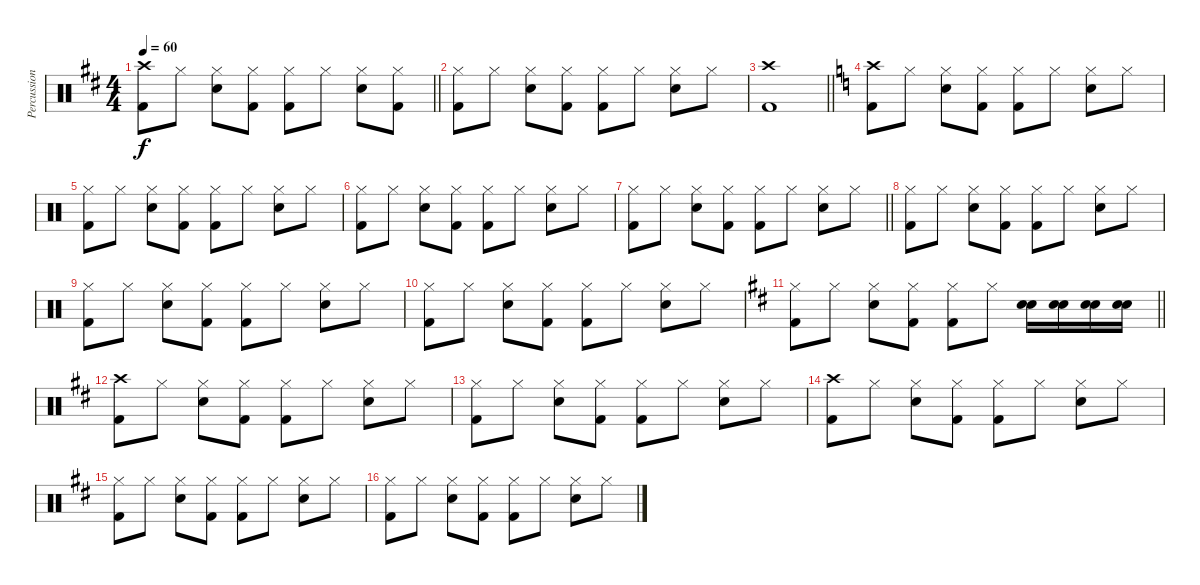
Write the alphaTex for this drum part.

\track ("Percussioni" "Percussion") {instrument percussion}
\staff {score}
\articulation defaults
\ts (4 4)
\tempo 60
\clef neutral
\barLineRight lightlight
\ks d
("Crash high (hit)" "Kick (hit) 2").8{dy f} "Hi-Hat (closed)".8 ("Hi-Hat (closed)" "Electric Snare (hit)").8 ("Hi-Hat (closed)" "Kick (hit) 2").8 ("Hi-Hat (closed)" "Kick (hit) 2").8 "Hi-Hat (closed)".8 ("Hi-Hat (closed)" "Electric Snare (hit)").8 ("Hi-Hat (closed)" "Kick (hit) 2").8 |
("Hi-Hat (closed)" "Kick (hit) 2").8 "Hi-Hat (closed)".8 ("Hi-Hat (closed)" "Electric Snare (hit)").8 ("Hi-Hat (closed)" "Kick (hit) 2").8 ("Hi-Hat (closed)" "Kick (hit) 2").8 "Hi-Hat (closed)".8 ("Hi-Hat (closed)" "Electric Snare (hit)").8 "Hi-Hat (closed)".8 |
\barLineRight lightlight
("Crash high (hit)" "Kick (hit) 2").1 |
\ks c
("Crash high (hit)" "Kick (hit) 2").8 "Hi-Hat (closed)".8 ("Hi-Hat (closed)" "Electric Snare (hit)").8 ("Hi-Hat (closed)" "Kick (hit) 2").8 ("Hi-Hat (closed)" "Kick (hit) 2").8 "Hi-Hat (closed)".8 ("Hi-Hat (closed)" "Electric Snare (hit)").8 "Hi-Hat (closed)".8 |
("Hi-Hat (closed)" "Kick (hit) 2").8 "Hi-Hat (closed)".8 ("Hi-Hat (closed)" "Electric Snare (hit)").8 ("Hi-Hat (closed)" "Kick (hit) 2").8 ("Hi-Hat (closed)" "Kick (hit) 2").8 "Hi-Hat (closed)".8 ("Hi-Hat (closed)" "Electric Snare (hit)").8 "Hi-Hat (closed)".8 |
("Hi-Hat (closed)" "Kick (hit) 2").8 "Hi-Hat (closed)".8 ("Hi-Hat (closed)" "Electric Snare (hit)").8 ("Hi-Hat (closed)" "Kick (hit) 2").8 ("Hi-Hat (closed)" "Kick (hit) 2").8 "Hi-Hat (closed)".8 ("Hi-Hat (closed)" "Electric Snare (hit)").8 "Hi-Hat (closed)".8 |
\barLineRight lightlight
("Hi-Hat (closed)" "Kick (hit) 2").8 "Hi-Hat (closed)".8 ("Hi-Hat (closed)" "Electric Snare (hit)").8 ("Hi-Hat (closed)" "Kick (hit) 2").8 ("Hi-Hat (closed)" "Kick (hit) 2").8 "Hi-Hat (closed)".8 ("Hi-Hat (closed)" "Electric Snare (hit)").8 "Hi-Hat (closed)".8 |
("Hi-Hat (closed)" "Kick (hit) 2").8 "Hi-Hat (closed)".8 ("Hi-Hat (closed)" "Electric Snare (hit)").8 ("Hi-Hat (closed)" "Kick (hit) 2").8 ("Hi-Hat (closed)" "Kick (hit) 2").8 "Hi-Hat (closed)".8 ("Hi-Hat (closed)" "Electric Snare (hit)").8 "Hi-Hat (closed)".8 |
("Hi-Hat (closed)" "Kick (hit) 2").8 "Hi-Hat (closed)".8 ("Hi-Hat (closed)" "Electric Snare (hit)").8 ("Hi-Hat (closed)" "Kick (hit) 2").8 ("Hi-Hat (closed)" "Kick (hit) 2").8 "Hi-Hat (closed)".8 ("Hi-Hat (closed)" "Electric Snare (hit)").8 "Hi-Hat (closed)".8 |
("Hi-Hat (closed)" "Kick (hit) 2").8 "Hi-Hat (closed)".8 ("Hi-Hat (closed)" "Electric Snare (hit)").8 ("Hi-Hat (closed)" "Kick (hit) 2").8 ("Hi-Hat (closed)" "Kick (hit) 2").8 "Hi-Hat (closed)".8 ("Hi-Hat (closed)" "Electric Snare (hit)").8 "Hi-Hat (closed)".8 |
\barLineRight lightlight
\ks d
("Hi-Hat (closed)" "Kick (hit) 2").8 "Hi-Hat (closed)".8 ("Hi-Hat (closed)" "Electric Snare (hit)").8 ("Hi-Hat (closed)" "Kick (hit) 2").8 ("Hi-Hat (closed)" "Kick (hit) 2").8 "Hi-Hat (closed)".8 ("Electric Snare (hit)" "Snare (hit) 2").16 ("Electric Snare (hit)" "Snare (hit) 2").16 ("Electric Snare (hit)" "Snare (hit) 2").16 ("Electric Snare (hit)" "Snare (hit) 2").16 |
("Crash high (hit)" "Kick (hit) 2").8 "Hi-Hat (closed)".8 ("Hi-Hat (closed)" "Electric Snare (hit)").8 ("Hi-Hat (closed)" "Kick (hit) 2").8 ("Hi-Hat (closed)" "Kick (hit) 2").8 "Hi-Hat (closed)".8 ("Hi-Hat (closed)" "Electric Snare (hit)").8 "Hi-Hat (closed)".8 |
("Hi-Hat (closed)" "Kick (hit) 2").8 "Hi-Hat (closed)".8 ("Hi-Hat (closed)" "Electric Snare (hit)").8 ("Hi-Hat (closed)" "Kick (hit) 2").8 ("Hi-Hat (closed)" "Kick (hit) 2").8 "Hi-Hat (closed)".8 ("Hi-Hat (closed)" "Electric Snare (hit)").8 "Hi-Hat (closed)".8 |
("Crash high (hit)" "Kick (hit) 2").8 "Hi-Hat (closed)".8 ("Hi-Hat (closed)" "Electric Snare (hit)").8 ("Hi-Hat (closed)" "Kick (hit) 2").8 ("Hi-Hat (closed)" "Kick (hit) 2").8 "Hi-Hat (closed)".8 ("Hi-Hat (closed)" "Electric Snare (hit)").8 "Hi-Hat (closed)".8 |
("Hi-Hat (closed)" "Kick (hit) 2").8 "Hi-Hat (closed)".8 ("Hi-Hat (closed)" "Electric Snare (hit)").8 ("Hi-Hat (closed)" "Kick (hit) 2").8 ("Hi-Hat (closed)" "Kick (hit) 2").8 "Hi-Hat (closed)".8 ("Hi-Hat (closed)" "Electric Snare (hit)").8 "Hi-Hat (closed)".8 |
("Hi-Hat (closed)" "Kick (hit) 2").8 "Hi-Hat (closed)".8 ("Hi-Hat (closed)" "Electric Snare (hit)").8 ("Hi-Hat (closed)" "Kick (hit) 2").8 ("Hi-Hat (closed)" "Kick (hit) 2").8 "Hi-Hat (closed)".8 ("Hi-Hat (closed)" "Electric Snare (hit)").8 "Hi-Hat (closed)".8
